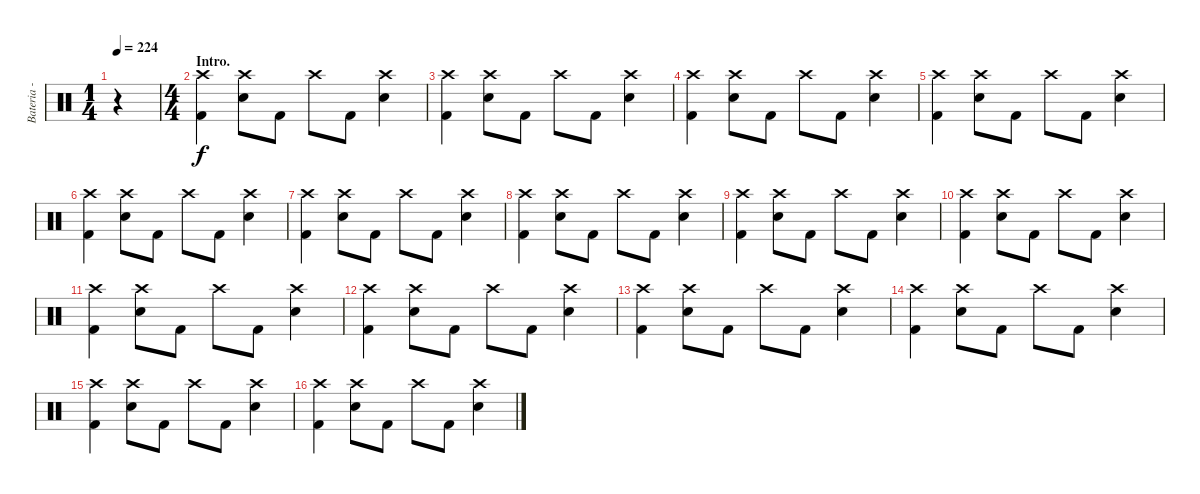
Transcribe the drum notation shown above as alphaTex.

\track ("Bateria - Larzon" "Bateria - ") {instrument percussion}
\staff {score}
\articulation defaults
\ts (1 4)
\tempo 224
\clef neutral
\ks c
r.4{dy f} |
\ts (4 4)
\section ("" "Intro.")
("Kick (hit) 2" "Crash high (hit)").4 ("Electric Snare (hit)" "Crash high (hit)").8 "Kick (hit) 2".8 "Crash high (hit)".8 "Kick (hit) 2".8 ("Electric Snare (hit)" "Crash high (hit)").4 |
("Kick (hit) 2" "Crash high (hit)").4 ("Electric Snare (hit)" "Crash high (hit)").8 "Kick (hit) 2".8 "Crash high (hit)".8 "Kick (hit) 2".8 ("Electric Snare (hit)" "Crash high (hit)").4 |
("Kick (hit) 2" "Crash high (hit)").4 ("Electric Snare (hit)" "Crash high (hit)").8 "Kick (hit) 2".8 "Crash high (hit)".8 "Kick (hit) 2".8 ("Electric Snare (hit)" "Crash high (hit)").4 |
("Kick (hit) 2" "Crash high (hit)").4 ("Electric Snare (hit)" "Crash high (hit)").8 "Kick (hit) 2".8 "Crash high (hit)".8 "Kick (hit) 2".8 ("Electric Snare (hit)" "Crash high (hit)").4 |
("Kick (hit) 2" "Crash high (hit)").4 ("Electric Snare (hit)" "Crash high (hit)").8 "Kick (hit) 2".8 "Crash high (hit)".8 "Kick (hit) 2".8 ("Electric Snare (hit)" "Crash high (hit)").4 |
("Kick (hit) 2" "Crash high (hit)").4 ("Electric Snare (hit)" "Crash high (hit)").8 "Kick (hit) 2".8 "Crash high (hit)".8 "Kick (hit) 2".8 ("Electric Snare (hit)" "Crash high (hit)").4 |
("Kick (hit) 2" "Crash high (hit)").4 ("Electric Snare (hit)" "Crash high (hit)").8 "Kick (hit) 2".8 "Crash high (hit)".8 "Kick (hit) 2".8 ("Electric Snare (hit)" "Crash high (hit)").4 |
("Kick (hit) 2" "Crash high (hit)").4 ("Electric Snare (hit)" "Crash high (hit)").8 "Kick (hit) 2".8 "Crash high (hit)".8 "Kick (hit) 2".8 ("Electric Snare (hit)" "Crash high (hit)").4 |
("Kick (hit) 2" "Crash high (hit)").4 ("Electric Snare (hit)" "Crash high (hit)").8 "Kick (hit) 2".8 "Crash high (hit)".8 "Kick (hit) 2".8 ("Electric Snare (hit)" "Crash high (hit)").4 |
("Kick (hit) 2" "Crash high (hit)").4 ("Electric Snare (hit)" "Crash high (hit)").8 "Kick (hit) 2".8 "Crash high (hit)".8 "Kick (hit) 2".8 ("Electric Snare (hit)" "Crash high (hit)").4 |
("Kick (hit) 2" "Crash high (hit)").4 ("Electric Snare (hit)" "Crash high (hit)").8 "Kick (hit) 2".8 "Crash high (hit)".8 "Kick (hit) 2".8 ("Electric Snare (hit)" "Crash high (hit)").4 |
("Kick (hit) 2" "Crash high (hit)").4 ("Electric Snare (hit)" "Crash high (hit)").8 "Kick (hit) 2".8 "Crash high (hit)".8 "Kick (hit) 2".8 ("Electric Snare (hit)" "Crash high (hit)").4 |
("Kick (hit) 2" "Crash high (hit)").4 ("Electric Snare (hit)" "Crash high (hit)").8 "Kick (hit) 2".8 "Crash high (hit)".8 "Kick (hit) 2".8 ("Electric Snare (hit)" "Crash high (hit)").4 |
("Kick (hit) 2" "Crash high (hit)").4 ("Electric Snare (hit)" "Crash high (hit)").8 "Kick (hit) 2".8 "Crash high (hit)".8 "Kick (hit) 2".8 ("Electric Snare (hit)" "Crash high (hit)").4 |
("Kick (hit) 2" "Crash high (hit)").4 ("Electric Snare (hit)" "Crash high (hit)").8 "Kick (hit) 2".8 "Crash high (hit)".8 "Kick (hit) 2".8 ("Electric Snare (hit)" "Crash high (hit)").4
